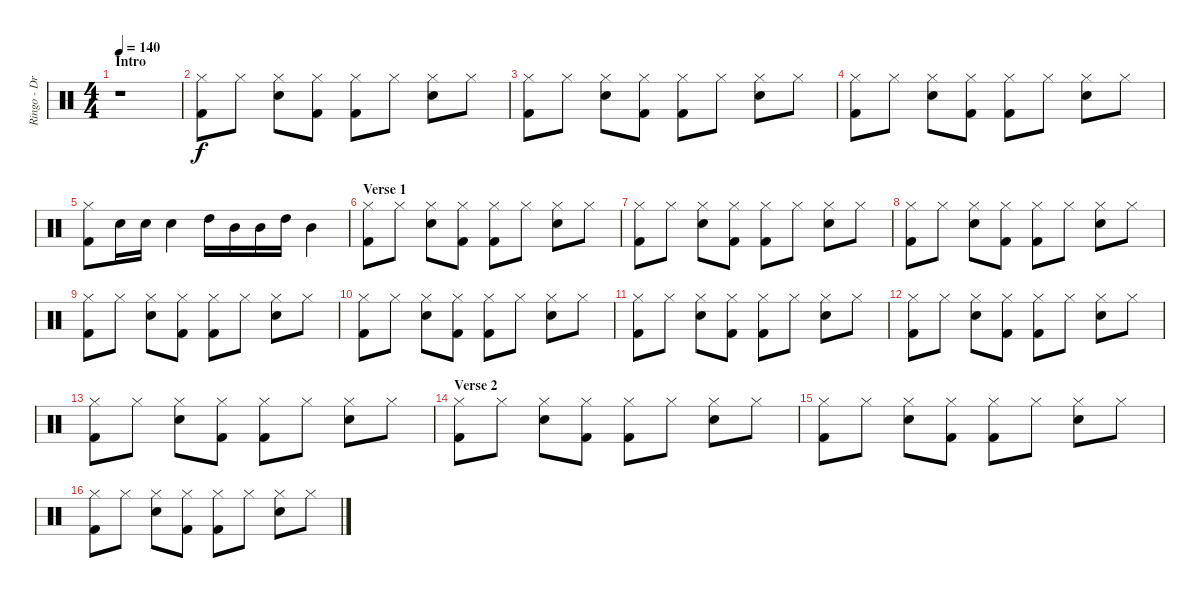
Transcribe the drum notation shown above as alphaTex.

\track ("Ringo - Drums" "Ringo - Dr") {instrument percussion}
\staff {score}
\articulation defaults
\ts (4 4)
\section ("" "Intro")
\tempo 140
\clef neutral
\ks c
r.1{dy f} |
("Kick (hit) 2" "Hi-Hat (closed)").8 "Hi-Hat (closed)".8 ("Snare (hit) 2" "Hi-Hat (closed)").8 ("Kick (hit) 2" "Hi-Hat (closed)").8 ("Kick (hit) 2" "Hi-Hat (closed)").8 "Hi-Hat (closed)".8 ("Snare (hit) 2" "Hi-Hat (closed)").8 "Hi-Hat (closed)".8 |
("Kick (hit) 2" "Hi-Hat (closed)").8 "Hi-Hat (closed)".8 ("Snare (hit) 2" "Hi-Hat (closed)").8 ("Kick (hit) 2" "Hi-Hat (closed)").8 ("Kick (hit) 2" "Hi-Hat (closed)").8 "Hi-Hat (closed)".8 ("Snare (hit) 2" "Hi-Hat (closed)").8 "Hi-Hat (closed)".8 |
("Kick (hit) 2" "Hi-Hat (closed)").8 "Hi-Hat (closed)".8 ("Snare (hit) 2" "Hi-Hat (closed)").8 ("Kick (hit) 2" "Hi-Hat (closed)").8 ("Kick (hit) 2" "Hi-Hat (closed)").8 "Hi-Hat (closed)".8 ("Snare (hit) 2" "Hi-Hat (closed)").8 "Hi-Hat (closed)".8 |
("Kick (hit) 2" "Hi-Hat (closed)").8 "Snare (hit) 2".16 "Snare (hit) 2".16 "Snare (hit) 2".4 "High Tom (hit)".16 "Mid Tom (hit)".16 "Mid Tom (hit)".16 "High Tom (hit)".16 "Mid Tom (hit)".4 |
\section ("" "Verse 1")
("Kick (hit) 2" "Hi-Hat (closed)").8 "Hi-Hat (closed)".8 ("Snare (hit) 2" "Hi-Hat (closed)").8 ("Kick (hit) 2" "Hi-Hat (closed)").8 ("Kick (hit) 2" "Hi-Hat (closed)").8 "Hi-Hat (closed)".8 ("Snare (hit) 2" "Hi-Hat (closed)").8 "Hi-Hat (closed)".8 |
("Kick (hit) 2" "Hi-Hat (closed)").8 "Hi-Hat (closed)".8 ("Snare (hit) 2" "Hi-Hat (closed)").8 ("Kick (hit) 2" "Hi-Hat (closed)").8 ("Kick (hit) 2" "Hi-Hat (closed)").8 "Hi-Hat (closed)".8 ("Snare (hit) 2" "Hi-Hat (closed)").8 "Hi-Hat (closed)".8 |
("Kick (hit) 2" "Hi-Hat (closed)").8 "Hi-Hat (closed)".8 ("Snare (hit) 2" "Hi-Hat (closed)").8 ("Kick (hit) 2" "Hi-Hat (closed)").8 ("Kick (hit) 2" "Hi-Hat (closed)").8 "Hi-Hat (closed)".8 ("Snare (hit) 2" "Hi-Hat (closed)").8 "Hi-Hat (closed)".8 |
("Kick (hit) 2" "Hi-Hat (closed)").8 "Hi-Hat (closed)".8 ("Snare (hit) 2" "Hi-Hat (closed)").8 ("Kick (hit) 2" "Hi-Hat (closed)").8 ("Kick (hit) 2" "Hi-Hat (closed)").8 "Hi-Hat (closed)".8 ("Snare (hit) 2" "Hi-Hat (closed)").8 "Hi-Hat (closed)".8 |
("Kick (hit) 2" "Hi-Hat (closed)").8 "Hi-Hat (closed)".8 ("Snare (hit) 2" "Hi-Hat (closed)").8 ("Kick (hit) 2" "Hi-Hat (closed)").8 ("Kick (hit) 2" "Hi-Hat (closed)").8 "Hi-Hat (closed)".8 ("Snare (hit) 2" "Hi-Hat (closed)").8 "Hi-Hat (closed)".8 |
("Kick (hit) 2" "Hi-Hat (closed)").8 "Hi-Hat (closed)".8 ("Snare (hit) 2" "Hi-Hat (closed)").8 ("Kick (hit) 2" "Hi-Hat (closed)").8 ("Kick (hit) 2" "Hi-Hat (closed)").8 "Hi-Hat (closed)".8 ("Snare (hit) 2" "Hi-Hat (closed)").8 "Hi-Hat (closed)".8 |
("Kick (hit) 2" "Hi-Hat (closed)").8 "Hi-Hat (closed)".8 ("Snare (hit) 2" "Hi-Hat (closed)").8 ("Kick (hit) 2" "Hi-Hat (closed)").8 ("Kick (hit) 2" "Hi-Hat (closed)").8 "Hi-Hat (closed)".8 ("Snare (hit) 2" "Hi-Hat (closed)").8 "Hi-Hat (closed)".8 |
("Kick (hit) 2" "Hi-Hat (closed)").8 "Hi-Hat (closed)".8 ("Snare (hit) 2" "Hi-Hat (closed)").8 ("Kick (hit) 2" "Hi-Hat (closed)").8 ("Kick (hit) 2" "Hi-Hat (closed)").8 "Hi-Hat (closed)".8 ("Snare (hit) 2" "Hi-Hat (closed)").8 "Hi-Hat (closed)".8 |
\section ("" "Verse 2")
("Kick (hit) 2" "Hi-Hat (closed)").8 "Hi-Hat (closed)".8 ("Snare (hit) 2" "Hi-Hat (closed)").8 ("Kick (hit) 2" "Hi-Hat (closed)").8 ("Kick (hit) 2" "Hi-Hat (closed)").8 "Hi-Hat (closed)".8 ("Snare (hit) 2" "Hi-Hat (closed)").8 "Hi-Hat (closed)".8 |
("Kick (hit) 2" "Hi-Hat (closed)").8 "Hi-Hat (closed)".8 ("Snare (hit) 2" "Hi-Hat (closed)").8 ("Kick (hit) 2" "Hi-Hat (closed)").8 ("Kick (hit) 2" "Hi-Hat (closed)").8 "Hi-Hat (closed)".8 ("Snare (hit) 2" "Hi-Hat (closed)").8 "Hi-Hat (closed)".8 |
("Kick (hit) 2" "Hi-Hat (closed)").8 "Hi-Hat (closed)".8 ("Snare (hit) 2" "Hi-Hat (closed)").8 ("Kick (hit) 2" "Hi-Hat (closed)").8 ("Kick (hit) 2" "Hi-Hat (closed)").8 "Hi-Hat (closed)".8 ("Snare (hit) 2" "Hi-Hat (closed)").8 "Hi-Hat (closed)".8
